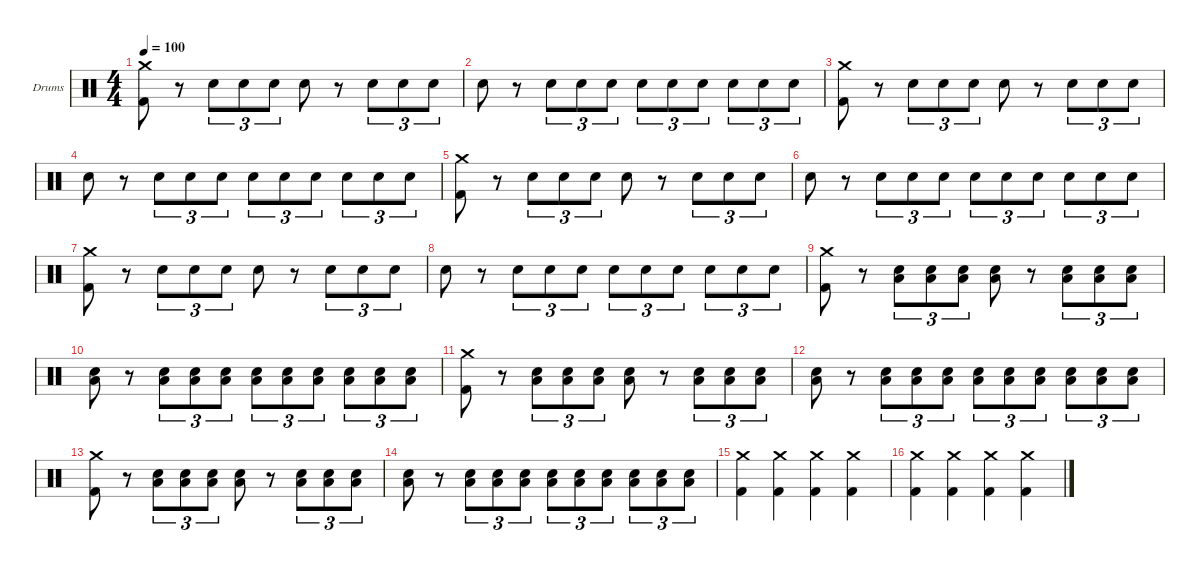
\hideDynamics
\bracketExtendMode nobrackets
\firstSystemTrackNameOrientation horizontal
\otherSystemsTrackNameOrientation horizontal
\track ("Drumkit" "Drums") {instrument percussion}
\staff {score}
\articulation defaults
\ts (4 4)
\tempo 100
\clef neutral
\ks c
("Kick (hit) 2" "Crash medium (hit)").8{dy f} r.8 "Snare (hit) 2".8{tu (3 2)} "Snare (hit) 2".8{tu (3 2)} "Snare (hit) 2".8{tu (3 2)} "Snare (hit) 2".8 r.8 "Snare (hit) 2".8{tu (3 2)} "Snare (hit) 2".8{tu (3 2)} "Snare (hit) 2".8{tu (3 2)} |
"Snare (hit) 2".8 r.8 "Snare (hit) 2".8{tu (3 2)} "Snare (hit) 2".8{tu (3 2)} "Snare (hit) 2".8{tu (3 2)} "Snare (hit) 2".8{tu (3 2)} "Snare (hit) 2".8{tu (3 2)} "Snare (hit) 2".8{tu (3 2)} "Snare (hit) 2".8{tu (3 2)} "Snare (hit) 2".8{tu (3 2)} "Snare (hit) 2".8{tu (3 2)} |
("Kick (hit) 2" "Crash medium (hit)").8 r.8 "Snare (hit) 2".8{tu (3 2)} "Snare (hit) 2".8{tu (3 2)} "Snare (hit) 2".8{tu (3 2)} "Snare (hit) 2".8 r.8 "Snare (hit) 2".8{tu (3 2)} "Snare (hit) 2".8{tu (3 2)} "Snare (hit) 2".8{tu (3 2)} |
"Snare (hit) 2".8 r.8 "Snare (hit) 2".8{tu (3 2)} "Snare (hit) 2".8{tu (3 2)} "Snare (hit) 2".8{tu (3 2)} "Snare (hit) 2".8{tu (3 2)} "Snare (hit) 2".8{tu (3 2)} "Snare (hit) 2".8{tu (3 2)} "Snare (hit) 2".8{tu (3 2)} "Snare (hit) 2".8{tu (3 2)} "Snare (hit) 2".8{tu (3 2)} |
("Kick (hit) 2" "Crash medium (hit)").8 r.8 "Snare (hit) 2".8{tu (3 2)} "Snare (hit) 2".8{tu (3 2)} "Snare (hit) 2".8{tu (3 2)} "Snare (hit) 2".8 r.8 "Snare (hit) 2".8{tu (3 2)} "Snare (hit) 2".8{tu (3 2)} "Snare (hit) 2".8{tu (3 2)} |
"Snare (hit) 2".8 r.8 "Snare (hit) 2".8{tu (3 2)} "Snare (hit) 2".8{tu (3 2)} "Snare (hit) 2".8{tu (3 2)} "Snare (hit) 2".8{tu (3 2)} "Snare (hit) 2".8{tu (3 2)} "Snare (hit) 2".8{tu (3 2)} "Snare (hit) 2".8{tu (3 2)} "Snare (hit) 2".8{tu (3 2)} "Snare (hit) 2".8{tu (3 2)} |
("Kick (hit) 2" "Crash medium (hit)").8 r.8 "Snare (hit) 2".8{tu (3 2)} "Snare (hit) 2".8{tu (3 2)} "Snare (hit) 2".8{tu (3 2)} "Snare (hit) 2".8 r.8 "Snare (hit) 2".8{tu (3 2)} "Snare (hit) 2".8{tu (3 2)} "Snare (hit) 2".8{tu (3 2)} |
"Snare (hit) 2".8 r.8 "Snare (hit) 2".8{tu (3 2)} "Snare (hit) 2".8{tu (3 2)} "Snare (hit) 2".8{tu (3 2)} "Snare (hit) 2".8{tu (3 2)} "Snare (hit) 2".8{tu (3 2)} "Snare (hit) 2".8{tu (3 2)} "Snare (hit) 2".8{tu (3 2)} "Snare (hit) 2".8{tu (3 2)} "Snare (hit) 2".8{tu (3 2)} |
("Kick (hit) 2" "Crash medium (hit)").8 r.8 ("Snare (hit) 2" "Low Tom (hit)").8{tu (3 2)} ("Snare (hit) 2" "Low Tom (hit)").8{tu (3 2)} ("Snare (hit) 2" "Low Tom (hit)").8{tu (3 2)} ("Snare (hit) 2" "Low Tom (hit)").8 r.8 ("Snare (hit) 2" "Low Tom (hit)").8{tu (3 2)} ("Snare (hit) 2" "Low Tom (hit)").8{tu (3 2)} ("Snare (hit) 2" "Low Tom (hit)").8{tu (3 2)} |
("Low Tom (hit)" "Snare (hit) 2").8 r.8 ("Low Tom (hit)" "Snare (hit) 2").8{tu (3 2)} ("Low Tom (hit)" "Snare (hit) 2").8{tu (3 2)} ("Low Tom (hit)" "Snare (hit) 2").8{tu (3 2)} ("Low Tom (hit)" "Snare (hit) 2").8{tu (3 2)} ("Low Tom (hit)" "Snare (hit) 2").8{tu (3 2)} ("Low Tom (hit)" "Snare (hit) 2").8{tu (3 2)} ("Low Tom (hit)" "Snare (hit) 2").8{tu (3 2)} ("Low Tom (hit)" "Snare (hit) 2").8{tu (3 2)} ("Low Tom (hit)" "Snare (hit) 2").8{tu (3 2)} |
("Kick (hit) 2" "Crash medium (hit)").8 r.8 ("Snare (hit) 2" "Low Tom (hit)").8{tu (3 2)} ("Snare (hit) 2" "Low Tom (hit)").8{tu (3 2)} ("Snare (hit) 2" "Low Tom (hit)").8{tu (3 2)} ("Snare (hit) 2" "Low Tom (hit)").8 r.8 ("Snare (hit) 2" "Low Tom (hit)").8{tu (3 2)} ("Snare (hit) 2" "Low Tom (hit)").8{tu (3 2)} ("Snare (hit) 2" "Low Tom (hit)").8{tu (3 2)} |
("Low Tom (hit)" "Snare (hit) 2").8 r.8 ("Low Tom (hit)" "Snare (hit) 2").8{tu (3 2)} ("Low Tom (hit)" "Snare (hit) 2").8{tu (3 2)} ("Low Tom (hit)" "Snare (hit) 2").8{tu (3 2)} ("Low Tom (hit)" "Snare (hit) 2").8{tu (3 2)} ("Low Tom (hit)" "Snare (hit) 2").8{tu (3 2)} ("Low Tom (hit)" "Snare (hit) 2").8{tu (3 2)} ("Low Tom (hit)" "Snare (hit) 2").8{tu (3 2)} ("Low Tom (hit)" "Snare (hit) 2").8{tu (3 2)} ("Low Tom (hit)" "Snare (hit) 2").8{tu (3 2)} |
("Kick (hit) 2" "Crash medium (hit)").8 r.8 ("Snare (hit) 2" "Low Tom (hit)").8{tu (3 2)} ("Snare (hit) 2" "Low Tom (hit)").8{tu (3 2)} ("Snare (hit) 2" "Low Tom (hit)").8{tu (3 2)} ("Snare (hit) 2" "Low Tom (hit)").8 r.8 ("Snare (hit) 2" "Low Tom (hit)").8{tu (3 2)} ("Snare (hit) 2" "Low Tom (hit)").8{tu (3 2)} ("Snare (hit) 2" "Low Tom (hit)").8{tu (3 2)} |
("Low Tom (hit)" "Snare (hit) 2").8 r.8 ("Low Tom (hit)" "Snare (hit) 2").8{tu (3 2)} ("Low Tom (hit)" "Snare (hit) 2").8{tu (3 2)} ("Low Tom (hit)" "Snare (hit) 2").8{tu (3 2)} ("Low Tom (hit)" "Snare (hit) 2").8{tu (3 2)} ("Low Tom (hit)" "Snare (hit) 2").8{tu (3 2)} ("Low Tom (hit)" "Snare (hit) 2").8{tu (3 2)} ("Low Tom (hit)" "Snare (hit) 2").8{tu (3 2)} ("Low Tom (hit)" "Snare (hit) 2").8{tu (3 2)} ("Low Tom (hit)" "Snare (hit) 2").8{tu (3 2)} |
("Kick (hit) 2" "Crash medium (hit)").4 ("Kick (hit) 2" "Crash medium (hit)").4 ("Kick (hit) 2" "Crash medium (hit)").4 ("Kick (hit) 2" "Crash medium (hit)").4 |
("Kick (hit) 2" "Crash medium (hit)").4 ("Kick (hit) 2" "Crash medium (hit)").4 ("Kick (hit) 2" "Crash medium (hit)").4 ("Kick (hit) 2" "Crash medium (hit)").4
